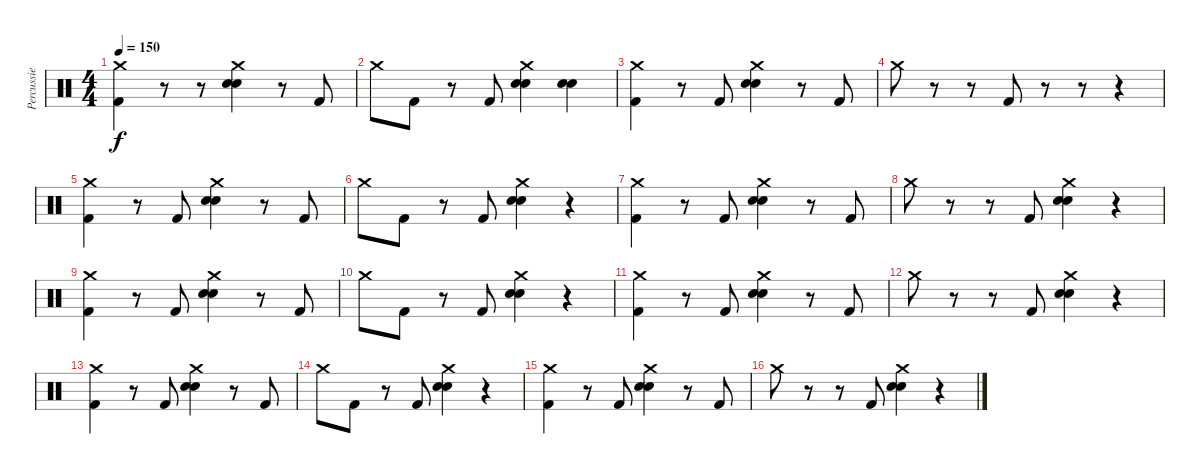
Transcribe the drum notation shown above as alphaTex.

\track ("Percussie" "Percussie") {instrument percussion}
\staff {score}
\articulation defaults
\ts (4 4)
\tempo 150
\clef neutral
\ks c
("Crash medium (hit)" "Kick (hit) 2").4{dy f} r.8 r.8 ("Crash medium (hit)" "Electric Snare (hit)" "Snare (hit) 2").4 r.8 "Kick (hit) 2".8 |
"Crash medium (hit)".8 "Kick (hit) 2".8 r.8 "Kick (hit) 2".8 ("Crash medium (hit)" "Electric Snare (hit)" "Snare (hit) 2").4 ("Electric Snare (hit)" "Snare (hit) 2").4 |
("Crash medium (hit)" "Kick (hit) 2").4 r.8 "Kick (hit) 2".8 ("Crash medium (hit)" "Electric Snare (hit)" "Snare (hit) 2").4 r.8 "Kick (hit) 2".8 |
"Crash medium (hit)".8 r.8 r.8 "Kick (hit) 2".8 r.8 r.8 r.4 |
("Crash medium (hit)" "Kick (hit) 2").4 r.8 "Kick (hit) 2".8 ("Crash medium (hit)" "Electric Snare (hit)" "Snare (hit) 2").4 r.8 "Kick (hit) 2".8 |
"Crash medium (hit)".8 "Kick (hit) 2".8 r.8 "Kick (hit) 2".8 ("Crash medium (hit)" "Electric Snare (hit)" "Snare (hit) 2").4 r.4 |
("Crash medium (hit)" "Kick (hit) 2").4 r.8 "Kick (hit) 2".8 ("Crash medium (hit)" "Electric Snare (hit)" "Snare (hit) 2").4 r.8 "Kick (hit) 2".8 |
"Crash medium (hit)".8 r.8 r.8 "Kick (hit) 2".8 ("Crash medium (hit)" "Electric Snare (hit)" "Snare (hit) 2").4 r.4 |
("Crash medium (hit)" "Kick (hit) 2").4 r.8 "Kick (hit) 2".8 ("Crash medium (hit)" "Electric Snare (hit)" "Snare (hit) 2").4 r.8 "Kick (hit) 2".8 |
"Crash medium (hit)".8 "Kick (hit) 2".8 r.8 "Kick (hit) 2".8 ("Crash medium (hit)" "Electric Snare (hit)" "Snare (hit) 2").4 r.4 |
("Crash medium (hit)" "Kick (hit) 2").4 r.8 "Kick (hit) 2".8 ("Crash medium (hit)" "Electric Snare (hit)" "Snare (hit) 2").4 r.8 "Kick (hit) 2".8 |
"Crash medium (hit)".8 r.8 r.8 "Kick (hit) 2".8 ("Crash medium (hit)" "Electric Snare (hit)" "Snare (hit) 2").4 r.4 |
("Crash medium (hit)" "Kick (hit) 2").4 r.8 "Kick (hit) 2".8 ("Crash medium (hit)" "Electric Snare (hit)" "Snare (hit) 2").4 r.8 "Kick (hit) 2".8 |
"Crash medium (hit)".8 "Kick (hit) 2".8 r.8 "Kick (hit) 2".8 ("Crash medium (hit)" "Electric Snare (hit)" "Snare (hit) 2").4 r.4 |
("Crash medium (hit)" "Kick (hit) 2").4 r.8 "Kick (hit) 2".8 ("Crash medium (hit)" "Electric Snare (hit)" "Snare (hit) 2").4 r.8 "Kick (hit) 2".8 |
"Crash medium (hit)".8 r.8 r.8 "Kick (hit) 2".8 ("Crash medium (hit)" "Electric Snare (hit)" "Snare (hit) 2").4 r.4
